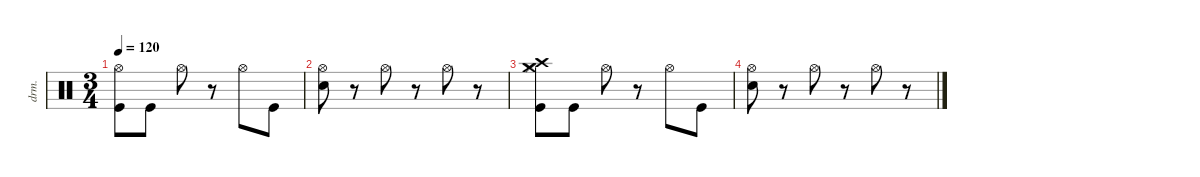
\defaultSystemsLayout 4
\hideDynamics
\bracketExtendMode nobrackets
\otherSystemsTrackNameOrientation horizontal
\track ("Drumkit" "drm.") {instrument percussion}
\staff {score}
\articulation defaults
\ts (3 4)
\tempo 120
\clef neutral
\ks c
("Kick (hit)" "Hi-Hat (open)").8{dy mf} "Kick (hit)".8 "Hi-Hat (open)".8 r.8 "Hi-Hat (open)".8 "Kick (hit)".8 |
("Hi-Hat (open)" "Snare (hit) 2").8 r.8 "Hi-Hat (open)".8 r.8 "Hi-Hat (open)".8 r.8 |
("Kick (hit)" "Hi-Hat (closed)" "Crash medium (hit)" "Crash high (hit)").8 "Kick (hit)".8 "Hi-Hat (open)".8 r.8 "Hi-Hat (open)".8 "Kick (hit)".8 |
("Hi-Hat (open)" "Snare (hit) 2").8 r.8 "Hi-Hat (open)".8 r.8 "Hi-Hat (open)".8 r.8
